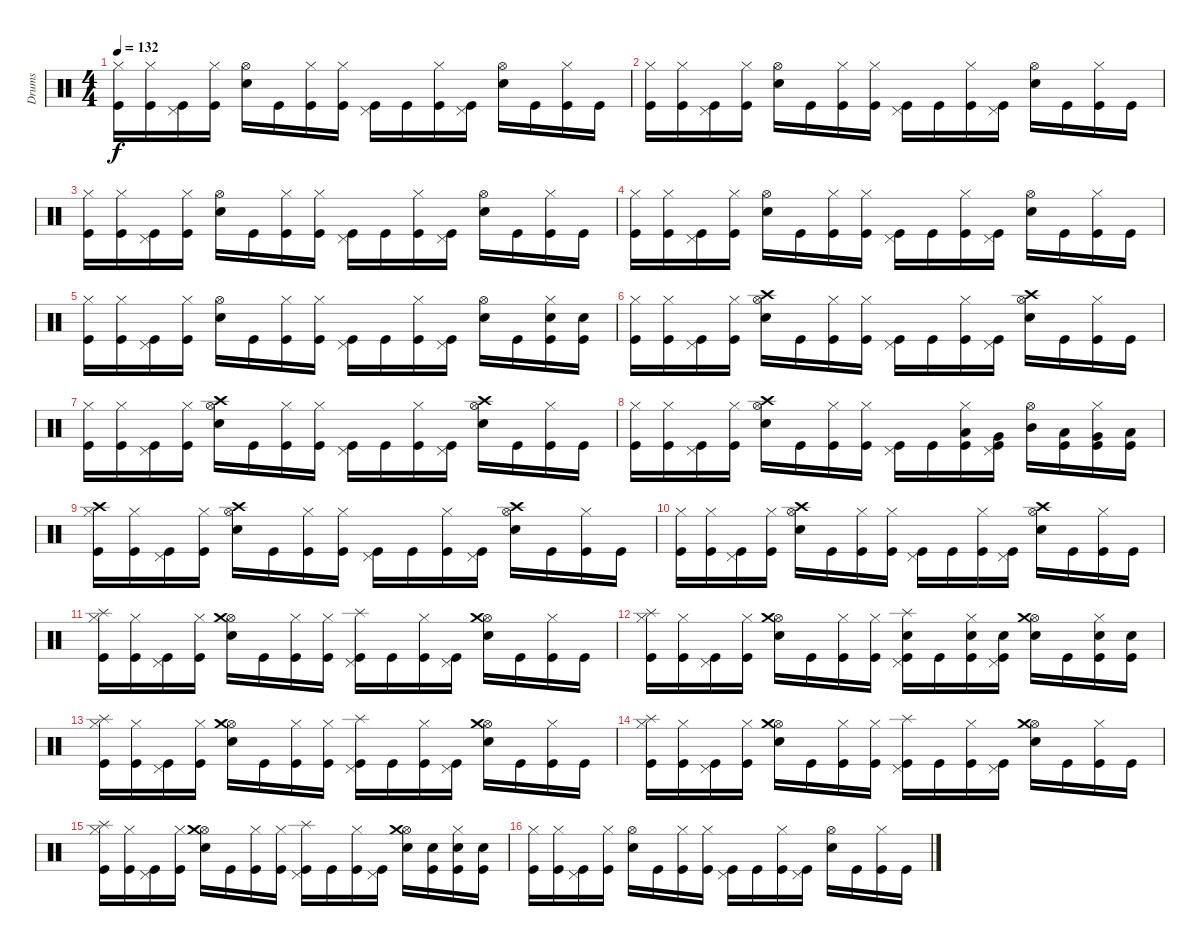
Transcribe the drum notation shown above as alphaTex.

\track ("Drums" "Drums") {instrument percussion}
\staff {score}
\articulation defaults
\ts (4 4)
\tempo 132
\clef neutral
\ks c
("Hi-Hat (closed)" "Kick (hit)").16{dy f} ("Hi-Hat (closed)" "Kick (hit)").16 ("Pedal Hi-Hat (hit)" "Kick (hit)").16 ("Hi-Hat (closed)" "Kick (hit)").16 ("Hi-Hat (open)" "Snare (hit) 2").16 "Kick (hit)".16 ("Hi-Hat (closed)" "Kick (hit)").16 ("Hi-Hat (closed)" "Kick (hit)").16 ("Pedal Hi-Hat (hit)" "Kick (hit)").16 "Kick (hit)".16 ("Hi-Hat (closed)" "Kick (hit)").16 ("Pedal Hi-Hat (hit)" "Kick (hit)").16 ("Hi-Hat (open)" "Snare (hit) 2").16 "Kick (hit)".16 ("Hi-Hat (closed)" "Kick (hit)").16 "Kick (hit)".16 |
("Hi-Hat (closed)" "Kick (hit)").16 ("Hi-Hat (closed)" "Kick (hit)").16 ("Pedal Hi-Hat (hit)" "Kick (hit)").16 ("Hi-Hat (closed)" "Kick (hit)").16 ("Hi-Hat (open)" "Snare (hit) 2").16 "Kick (hit)".16 ("Hi-Hat (closed)" "Kick (hit)").16 ("Hi-Hat (closed)" "Kick (hit)").16 ("Pedal Hi-Hat (hit)" "Kick (hit)").16 "Kick (hit)".16 ("Hi-Hat (closed)" "Kick (hit)").16 ("Pedal Hi-Hat (hit)" "Kick (hit)").16 ("Hi-Hat (open)" "Snare (hit) 2").16 "Kick (hit)".16 ("Hi-Hat (closed)" "Kick (hit)").16 "Kick (hit)".16 |
("Hi-Hat (closed)" "Kick (hit)").16 ("Hi-Hat (closed)" "Kick (hit)").16 ("Pedal Hi-Hat (hit)" "Kick (hit)").16 ("Hi-Hat (closed)" "Kick (hit)").16 ("Hi-Hat (open)" "Snare (hit) 2").16 "Kick (hit)".16 ("Hi-Hat (closed)" "Kick (hit)").16 ("Hi-Hat (closed)" "Kick (hit)").16 ("Pedal Hi-Hat (hit)" "Kick (hit)").16 "Kick (hit)".16 ("Hi-Hat (closed)" "Kick (hit)").16 ("Pedal Hi-Hat (hit)" "Kick (hit)").16 ("Hi-Hat (open)" "Snare (hit) 2").16 "Kick (hit)".16 ("Hi-Hat (closed)" "Kick (hit)").16 "Kick (hit)".16 |
("Hi-Hat (closed)" "Kick (hit)").16 ("Hi-Hat (closed)" "Kick (hit)").16 ("Pedal Hi-Hat (hit)" "Kick (hit)").16 ("Hi-Hat (closed)" "Kick (hit)").16 ("Hi-Hat (open)" "Snare (hit) 2").16 "Kick (hit)".16 ("Hi-Hat (closed)" "Kick (hit)").16 ("Hi-Hat (closed)" "Kick (hit)").16 ("Pedal Hi-Hat (hit)" "Kick (hit)").16 "Kick (hit)".16 ("Hi-Hat (closed)" "Kick (hit)").16 ("Pedal Hi-Hat (hit)" "Kick (hit)").16 ("Hi-Hat (open)" "Snare (hit) 2").16 "Kick (hit)".16 ("Hi-Hat (closed)" "Kick (hit)").16 "Kick (hit)".16 |
("Hi-Hat (closed)" "Kick (hit)").16 ("Hi-Hat (closed)" "Kick (hit)").16 ("Pedal Hi-Hat (hit)" "Kick (hit)").16 ("Hi-Hat (closed)" "Kick (hit)").16 ("Hi-Hat (open)" "Snare (hit) 2").16 "Kick (hit)".16 ("Hi-Hat (closed)" "Kick (hit)").16 ("Hi-Hat (closed)" "Kick (hit)").16 ("Pedal Hi-Hat (hit)" "Kick (hit)").16 "Kick (hit)".16 ("Hi-Hat (closed)" "Kick (hit)").16 ("Pedal Hi-Hat (hit)" "Kick (hit)").16 ("Hi-Hat (open)" "Snare (hit) 2").16 "Kick (hit)".16 ("Hi-Hat (closed)" "Snare (hit) 2" "Kick (hit)").16 ("Snare (hit) 2" "Kick (hit)").16 |
("Hi-Hat (closed)" "Kick (hit)").16 ("Hi-Hat (closed)" "Kick (hit)").16 ("Pedal Hi-Hat (hit)" "Kick (hit)").16 ("Hi-Hat (closed)" "Kick (hit)").16 ("Hi-Hat (open)" "Crash high (hit)" "Snare (hit) 2").16 "Kick (hit)".16 ("Hi-Hat (closed)" "Kick (hit)").16 ("Hi-Hat (closed)" "Kick (hit)").16 ("Pedal Hi-Hat (hit)" "Kick (hit)").16 "Kick (hit)".16 ("Hi-Hat (closed)" "Kick (hit)").16 ("Pedal Hi-Hat (hit)" "Kick (hit)").16 ("Hi-Hat (open)" "Crash high (hit)" "Snare (hit) 2").16 "Kick (hit)".16 ("Hi-Hat (closed)" "Kick (hit)").16 "Kick (hit)".16 |
("Hi-Hat (closed)" "Kick (hit)").16 ("Hi-Hat (closed)" "Kick (hit)").16 ("Pedal Hi-Hat (hit)" "Kick (hit)").16 ("Hi-Hat (closed)" "Kick (hit)").16 ("Hi-Hat (open)" "Crash high (hit)" "Snare (hit) 2").16 "Kick (hit)".16 ("Hi-Hat (closed)" "Kick (hit)").16 ("Hi-Hat (closed)" "Kick (hit)").16 ("Pedal Hi-Hat (hit)" "Kick (hit)").16 "Kick (hit)".16 ("Hi-Hat (closed)" "Kick (hit)").16 ("Pedal Hi-Hat (hit)" "Kick (hit)").16 ("Hi-Hat (open)" "Crash high (hit)" "Snare (hit) 2").16 "Kick (hit)".16 ("Hi-Hat (closed)" "Kick (hit)").16 "Kick (hit)".16 |
("Hi-Hat (closed)" "Kick (hit)").16 ("Hi-Hat (closed)" "Kick (hit)").16 ("Pedal Hi-Hat (hit)" "Kick (hit)").16 ("Hi-Hat (closed)" "Kick (hit)").16 ("Hi-Hat (open)" "Crash high (hit)" "Snare (hit) 2").16 "Kick (hit)".16 ("Hi-Hat (closed)" "Kick (hit)").16 ("Hi-Hat (closed)" "Kick (hit)").16 ("Pedal Hi-Hat (hit)" "Kick (hit)").16 "Kick (hit)".16 ("Hi-Hat (closed)" "Low Tom (hit)" "Kick (hit)").16 ("Pedal Hi-Hat (hit)" "Very Low Tom (hit)" "Kick (hit)").16 ("Hi-Hat (open)" "Mid Tom (hit)").16 ("Low Tom (hit)" "Kick (hit)").16 ("Hi-Hat (closed)" "Very Low Tom (hit)" "Kick (hit)").16 ("Low Floor Tom (hit)" "Kick (hit)").16 |
("Hi-Hat (closed)" "Crash high (hit)" "Kick (hit)").16 ("Hi-Hat (closed)" "Kick (hit)").16 ("Pedal Hi-Hat (hit)" "Kick (hit)").16 ("Hi-Hat (closed)" "Kick (hit)").16 ("Hi-Hat (open)" "Crash high (hit)" "Snare (hit) 2").16 "Kick (hit)".16 ("Hi-Hat (closed)" "Kick (hit)").16 ("Hi-Hat (closed)" "Kick (hit)").16 ("Pedal Hi-Hat (hit)" "Kick (hit)").16 "Kick (hit)".16 ("Hi-Hat (closed)" "Kick (hit)").16 ("Pedal Hi-Hat (hit)" "Kick (hit)").16 ("Hi-Hat (open)" "Crash high (hit)" "Snare (hit) 2").16 "Kick (hit)".16 ("Hi-Hat (closed)" "Kick (hit)").16 "Kick (hit)".16 |
("Hi-Hat (closed)" "Kick (hit)").16 ("Hi-Hat (closed)" "Kick (hit)").16 ("Pedal Hi-Hat (hit)" "Kick (hit)").16 ("Hi-Hat (closed)" "Kick (hit)").16 ("Hi-Hat (open)" "Crash high (hit)" "Snare (hit) 2").16 "Kick (hit)".16 ("Hi-Hat (closed)" "Kick (hit)").16 ("Hi-Hat (closed)" "Kick (hit)").16 ("Pedal Hi-Hat (hit)" "Kick (hit)").16 "Kick (hit)".16 ("Hi-Hat (closed)" "Kick (hit)").16 ("Pedal Hi-Hat (hit)" "Kick (hit)").16 ("Hi-Hat (open)" "Crash high (hit)" "Snare (hit) 2").16 "Kick (hit)".16 ("Hi-Hat (closed)" "Kick (hit)").16 "Kick (hit)".16 |
("Hi-Hat (closed)" "Splash (hit)" "Kick (hit)").16 ("Hi-Hat (closed)" "Kick (hit)").16 ("Pedal Hi-Hat (hit)" "Kick (hit)").16 ("Hi-Hat (closed)" "Kick (hit)").16 ("Hi-Hat (open)" "Crash medium (hit)" "Snare (hit) 2").16 "Kick (hit)".16 ("Hi-Hat (closed)" "Kick (hit)").16 ("Hi-Hat (closed)" "Kick (hit)").16 ("Pedal Hi-Hat (hit)" "Splash (hit)" "Kick (hit)").16 "Kick (hit)".16 ("Hi-Hat (closed)" "Kick (hit)").16 ("Pedal Hi-Hat (hit)" "Kick (hit)").16 ("Hi-Hat (open)" "Crash medium (hit)" "Snare (hit) 2").16 "Kick (hit)".16 ("Hi-Hat (closed)" "Kick (hit)").16 "Kick (hit)".16 |
("Hi-Hat (closed)" "Splash (hit)" "Kick (hit)").16 ("Hi-Hat (closed)" "Kick (hit)").16 ("Pedal Hi-Hat (hit)" "Kick (hit)").16 ("Hi-Hat (closed)" "Kick (hit)").16 ("Hi-Hat (open)" "Crash medium (hit)" "Snare (hit) 2").16 "Kick (hit)".16 ("Hi-Hat (closed)" "Kick (hit)").16 ("Hi-Hat (closed)" "Kick (hit)").16 ("Pedal Hi-Hat (hit)" "Splash (hit)" "Snare (hit) 2" "Kick (hit)").16 "Kick (hit)".16 ("Hi-Hat (closed)" "Snare (hit) 2" "Kick (hit)").16 ("Pedal Hi-Hat (hit)" "Snare (hit) 2" "Kick (hit)").16 ("Hi-Hat (open)" "Crash medium (hit)" "Snare (hit) 2").16 "Kick (hit)".16 ("Hi-Hat (closed)" "Snare (hit) 2" "Kick (hit)").16 ("Snare (hit) 2" "Kick (hit)").16 |
("Hi-Hat (closed)" "Splash (hit)" "Kick (hit)").16 ("Hi-Hat (closed)" "Kick (hit)").16 ("Pedal Hi-Hat (hit)" "Kick (hit)").16 ("Hi-Hat (closed)" "Kick (hit)").16 ("Hi-Hat (open)" "Crash medium (hit)" "Snare (hit) 2").16 "Kick (hit)".16 ("Hi-Hat (closed)" "Kick (hit)").16 ("Hi-Hat (closed)" "Kick (hit)").16 ("Pedal Hi-Hat (hit)" "Splash (hit)" "Kick (hit)").16 "Kick (hit)".16 ("Hi-Hat (closed)" "Kick (hit)").16 ("Pedal Hi-Hat (hit)" "Kick (hit)").16 ("Hi-Hat (open)" "Crash medium (hit)" "Snare (hit) 2").16 "Kick (hit)".16 ("Hi-Hat (closed)" "Kick (hit)").16 "Kick (hit)".16 |
("Hi-Hat (closed)" "Splash (hit)" "Kick (hit)").16 ("Hi-Hat (closed)" "Kick (hit)").16 ("Pedal Hi-Hat (hit)" "Kick (hit)").16 ("Hi-Hat (closed)" "Kick (hit)").16 ("Hi-Hat (open)" "Crash medium (hit)" "Snare (hit) 2").16 "Kick (hit)".16 ("Hi-Hat (closed)" "Kick (hit)").16 ("Hi-Hat (closed)" "Kick (hit)").16 ("Pedal Hi-Hat (hit)" "Splash (hit)" "Kick (hit)").16 "Kick (hit)".16 ("Hi-Hat (closed)" "Kick (hit)").16 ("Pedal Hi-Hat (hit)" "Kick (hit)").16 ("Hi-Hat (open)" "Crash medium (hit)" "Snare (hit) 2").16 "Kick (hit)".16 ("Hi-Hat (closed)" "Kick (hit)").16 "Kick (hit)".16 |
("Hi-Hat (closed)" "Splash (hit)" "Kick (hit)").16 ("Hi-Hat (closed)" "Kick (hit)").16 ("Pedal Hi-Hat (hit)" "Kick (hit)").16 ("Hi-Hat (closed)" "Kick (hit)").16 ("Hi-Hat (open)" "Crash medium (hit)" "Snare (hit) 2").16 "Kick (hit)".16 ("Hi-Hat (closed)" "Kick (hit)").16 ("Hi-Hat (closed)" "Kick (hit)").16 ("Pedal Hi-Hat (hit)" "Splash (hit)" "Kick (hit)").16 "Kick (hit)".16 ("Hi-Hat (closed)" "Kick (hit)").16 ("Pedal Hi-Hat (hit)" "Kick (hit)").16 ("Hi-Hat (open)" "Crash medium (hit)" "Snare (hit) 2").16 ("Snare (hit) 2" "Kick (hit)").16 ("Hi-Hat (closed)" "Snare (hit) 2" "Kick (hit)").16 ("Snare (hit) 2" "Kick (hit)").16 |
("Hi-Hat (closed)" "Kick (hit)").16 ("Hi-Hat (closed)" "Kick (hit)").16 ("Pedal Hi-Hat (hit)" "Kick (hit)").16 ("Hi-Hat (closed)" "Kick (hit)").16 ("Hi-Hat (open)" "Snare (hit) 2").16 "Kick (hit)".16 ("Hi-Hat (closed)" "Kick (hit)").16 ("Hi-Hat (closed)" "Kick (hit)").16 ("Pedal Hi-Hat (hit)" "Kick (hit)").16 "Kick (hit)".16 ("Hi-Hat (closed)" "Kick (hit)").16 ("Pedal Hi-Hat (hit)" "Kick (hit)").16 ("Hi-Hat (open)" "Snare (hit) 2").16 "Kick (hit)".16 ("Hi-Hat (closed)" "Kick (hit)").16 "Kick (hit)".16
